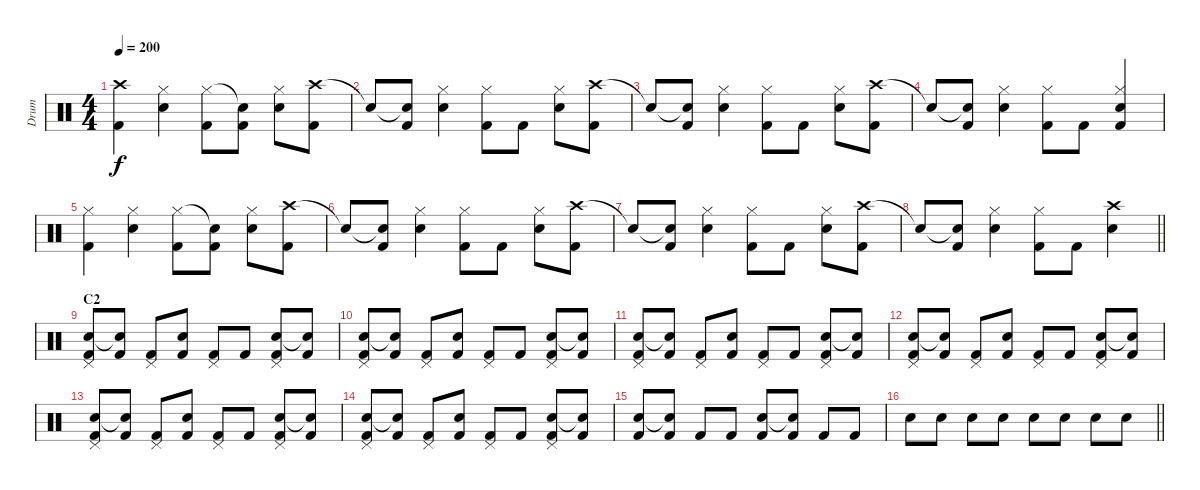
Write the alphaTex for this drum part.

\track ("Drum" "Drum") {instrument percussion}
\staff {score}
\articulation defaults
\ts (4 4)
\tempo 200
\clef neutral
\ks c
("Crash high (hit)" "Kick (hit) 2").4{dy f} ("Hi-Hat (closed)" "Snare (hit) 2").4 ("Hi-Hat (closed)" "Kick (hit) 2").8 ("Snare (hit)"{t} "Kick (hit) 2").8 ("Hi-Hat (closed)" "Snare (hit) 2").8 ("Crash high (hit)" "Kick (hit) 2").8 |
"Snare (hit)"{t}.8 ("Snare (hit)"{t} "Kick (hit) 2").8 ("Hi-Hat (closed)" "Snare (hit) 2").4 ("Hi-Hat (closed)" "Kick (hit) 2").8 "Kick (hit) 2".8 ("Hi-Hat (closed)" "Snare (hit) 2").8 ("Crash high (hit)" "Kick (hit) 2").8 |
"Snare (hit)"{t}.8 ("Snare (hit)"{t} "Kick (hit) 2").8 ("Hi-Hat (closed)" "Snare (hit) 2").4 ("Hi-Hat (closed)" "Kick (hit) 2").8 "Kick (hit) 2".8 ("Hi-Hat (closed)" "Snare (hit) 2").8 ("Crash high (hit)" "Kick (hit) 2").8 |
"Snare (hit)"{t}.8 ("Snare (hit)"{t} "Kick (hit) 2").8 ("Hi-Hat (closed)" "Snare (hit) 2").4 ("Hi-Hat (closed)" "Kick (hit) 2").8 "Kick (hit) 2".8 ("Hi-Hat (closed)" "Snare (hit) 2" "Kick (hit) 2").4 |
("Hi-Hat (closed)" "Kick (hit) 2").4 ("Hi-Hat (closed)" "Snare (hit) 2").4 ("Hi-Hat (closed)" "Kick (hit) 2").8 ("Snare (hit)"{t} "Kick (hit) 2").8 ("Hi-Hat (closed)" "Snare (hit) 2").8 ("Crash high (hit)" "Kick (hit) 2").8 |
"Snare (hit)"{t}.8 ("Snare (hit)"{t} "Kick (hit) 2").8 ("Hi-Hat (closed)" "Snare (hit) 2").4 ("Hi-Hat (closed)" "Kick (hit) 2").8 "Kick (hit) 2".8 ("Hi-Hat (closed)" "Snare (hit) 2").8 ("Crash high (hit)" "Kick (hit) 2").8 |
"Snare (hit)"{t}.8 ("Snare (hit)"{t} "Kick (hit) 2").8 ("Hi-Hat (closed)" "Snare (hit) 2").4 ("Hi-Hat (closed)" "Kick (hit) 2").8 "Kick (hit) 2".8 ("Hi-Hat (closed)" "Snare (hit) 2").8 ("Crash high (hit)" "Kick (hit) 2").8 |
\barLineRight lightlight "Snare (hit)"{t}.8
("Snare (hit)"{t} "Kick (hit) 2").8 ("Hi-Hat (closed)" "Snare (hit) 2").4 ("Hi-Hat (closed)" "Kick (hit) 2").8 "Kick (hit) 2".8 ("Crash high (hit)" "Snare (hit) 2").4 |
\section ("" "C2")
("Snare (hit) 2" "Pedal Hi-Hat (hit)" "Kick (hit) 2").8 ("Snare (hit)"{t} "Kick (hit) 2").8 ("Pedal Hi-Hat (hit)" "Kick (hit) 2").8 ("Snare (hit) 2" "Kick (hit) 2").8 ("Pedal Hi-Hat (hit)" "Kick (hit) 2").8 "Kick (hit) 2".8 ("Snare (hit) 2" "Pedal Hi-Hat (hit)" "Kick (hit) 2").8 ("Snare (hit)"{t} "Kick (hit) 2").8 |
("Snare (hit) 2" "Pedal Hi-Hat (hit)" "Kick (hit) 2").8 ("Snare (hit)"{t} "Kick (hit) 2").8 ("Pedal Hi-Hat (hit)" "Kick (hit) 2").8 ("Snare (hit) 2" "Kick (hit) 2").8 ("Pedal Hi-Hat (hit)" "Kick (hit) 2").8 "Kick (hit) 2".8 ("Snare (hit) 2" "Pedal Hi-Hat (hit)" "Kick (hit) 2").8 ("Snare (hit)"{t} "Kick (hit) 2").8 |
("Snare (hit) 2" "Pedal Hi-Hat (hit)" "Kick (hit) 2").8 ("Snare (hit)"{t} "Kick (hit) 2").8 ("Pedal Hi-Hat (hit)" "Kick (hit) 2").8 ("Snare (hit) 2" "Kick (hit) 2").8 ("Pedal Hi-Hat (hit)" "Kick (hit) 2").8 "Kick (hit) 2".8 ("Snare (hit) 2" "Pedal Hi-Hat (hit)" "Kick (hit) 2").8 ("Snare (hit)"{t} "Kick (hit) 2").8 |
("Snare (hit) 2" "Pedal Hi-Hat (hit)" "Kick (hit) 2").8 ("Snare (hit)"{t} "Kick (hit) 2").8 ("Pedal Hi-Hat (hit)" "Kick (hit) 2").8 ("Snare (hit) 2" "Kick (hit) 2").8 ("Pedal Hi-Hat (hit)" "Kick (hit) 2").8 "Kick (hit) 2".8 ("Snare (hit) 2" "Pedal Hi-Hat (hit)" "Kick (hit) 2").8 ("Snare (hit)"{t} "Kick (hit) 2").8 |
("Snare (hit) 2" "Pedal Hi-Hat (hit)" "Kick (hit) 2").8 ("Snare (hit)"{t} "Kick (hit) 2").8 ("Pedal Hi-Hat (hit)" "Kick (hit) 2").8 ("Snare (hit) 2" "Kick (hit) 2").8 ("Pedal Hi-Hat (hit)" "Kick (hit) 2").8 "Kick (hit) 2".8 ("Snare (hit) 2" "Pedal Hi-Hat (hit)" "Kick (hit) 2").8 ("Snare (hit)"{t} "Kick (hit) 2").8 |
("Snare (hit) 2" "Pedal Hi-Hat (hit)" "Kick (hit) 2").8 ("Snare (hit)"{t} "Kick (hit) 2").8 ("Pedal Hi-Hat (hit)" "Kick (hit) 2").8 ("Snare (hit) 2" "Kick (hit) 2").8 ("Pedal Hi-Hat (hit)" "Kick (hit) 2").8 "Kick (hit) 2".8 ("Snare (hit) 2" "Pedal Hi-Hat (hit)" "Kick (hit) 2").8 ("Snare (hit)"{t} "Kick (hit) 2").8 |
("Snare (hit) 2" "Kick (hit) 2").8 ("Snare (hit)"{t} "Kick (hit) 2").8 "Kick (hit) 2".8 "Kick (hit) 2".8 ("Snare (hit) 2" "Kick (hit) 2").8 ("Snare (hit)"{t} "Kick (hit) 2").8 "Kick (hit) 2".8 "Kick (hit) 2".8 |
\barLineRight lightlight "Snare (hit) 2".8 "Snare (hit) 2".8 "Snare (hit) 2".8 "Snare (hit) 2".8 "Snare (hit) 2".8 "Snare (hit) 2".8 "Snare (hit) 2".8 "Snare (hit) 2".8
